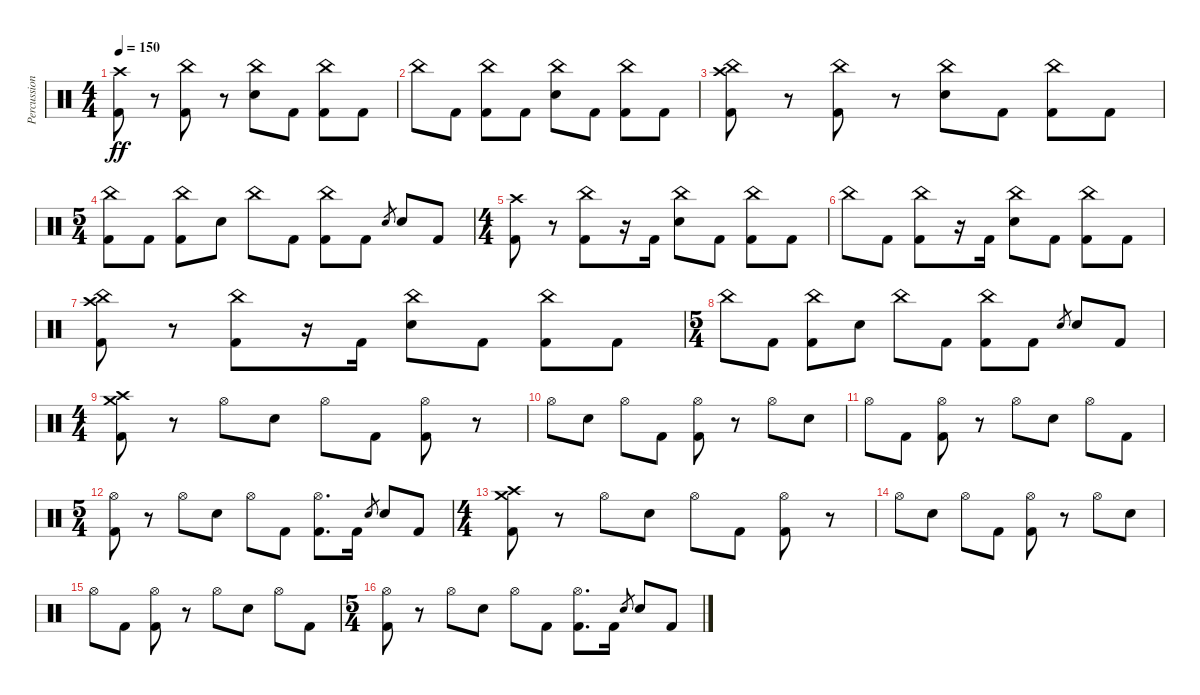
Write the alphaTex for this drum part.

\track ("Percussion" "Percussion") {instrument percussion}
\staff {score}
\articulation defaults
\ts (4 4)
\tempo 150
\clef neutral
\ks c
("Crash high (hit)" "Kick (hit) 2").8{dy ff} r.8 ("China (hit)" "Kick (hit) 2").8 r.8 ("China (hit)" "Electric Snare (hit)").8 "Kick (hit) 2".8 ("China (hit)" "Kick (hit) 2").8 "Kick (hit) 2".8 |
"China (hit)".8 "Kick (hit) 2".8 ("China (hit)" "Kick (hit) 2").8 "Kick (hit) 2".8 ("China (hit)" "Electric Snare (hit)").8 "Kick (hit) 2".8 ("China (hit)" "Kick (hit) 2").8 "Kick (hit) 2".8 |
("China (hit)" "Crash high (hit)" "Kick (hit) 2").8 r.8 ("China (hit)" "Kick (hit) 2").8 r.8 ("China (hit)" "Electric Snare (hit)").8 "Kick (hit) 2".8 ("China (hit)" "Kick (hit) 2").8 "Kick (hit) 2".8 |
\ts (5 4)
("China (hit)" "Kick (hit) 2").8 "Kick (hit) 2".8 ("China (hit)" "Kick (hit) 2").8 "Electric Snare (hit)".8 "China (hit)".8 "Kick (hit) 2".8 ("China (hit)" "Kick (hit) 2").8 "Kick (hit) 2".8 "Electric Snare (hit)".8{gr} "Electric Snare (hit)".8 "Kick (hit) 2".8 |
\ts (4 4)
("Crash high (hit)" "Kick (hit) 2").8 r.8 ("China (hit)" "Kick (hit) 2").8 r.16 "Kick (hit) 2".16 ("China (hit)" "Electric Snare (hit)").8 "Kick (hit) 2".8 ("China (hit)" "Kick (hit) 2").8 "Kick (hit) 2".8 |
"China (hit)".8 "Kick (hit) 2".8 ("China (hit)" "Kick (hit) 2").8 r.16 "Kick (hit) 2".16 ("China (hit)" "Electric Snare (hit)").8 "Kick (hit) 2".8 ("China (hit)" "Kick (hit) 2").8 "Kick (hit) 2".8 |
("China (hit)" "Crash high (hit)" "Kick (hit) 2").8 r.8 ("China (hit)" "Kick (hit) 2").8 r.16 "Kick (hit) 2".16 ("China (hit)" "Electric Snare (hit)").8 "Kick (hit) 2".8 ("China (hit)" "Kick (hit) 2").8 "Kick (hit) 2".8 |
\ts (5 4)
"China (hit)".8 "Kick (hit) 2".8 ("China (hit)" "Kick (hit) 2").8 "Electric Snare (hit)".8 "China (hit)".8 "Kick (hit) 2".8 ("China (hit)" "Kick (hit) 2").8 "Kick (hit) 2".8 "Electric Snare (hit)".8{gr} "Electric Snare (hit)".8 "Kick (hit) 2".8 |
\ts (4 4)
("Crash high (hit)" "Crash medium (hit)" "Kick (hit) 2").8 r.8 "Hi-Hat (open)".8 "Electric Snare (hit)".8 "Hi-Hat (open)".8 "Kick (hit) 2".8 ("Hi-Hat (open)" "Kick (hit) 2").8 r.8 |
"Hi-Hat (open)".8 "Electric Snare (hit)".8 "Hi-Hat (open)".8 "Kick (hit) 2".8 ("Hi-Hat (open)" "Kick (hit) 2").8 r.8 "Hi-Hat (open)".8 "Electric Snare (hit)".8 |
"Hi-Hat (open)".8 "Kick (hit) 2".8 ("Hi-Hat (open)" "Kick (hit) 2").8 r.8 "Hi-Hat (open)".8 "Electric Snare (hit)".8 "Hi-Hat (open)".8 "Kick (hit) 2".8 |
\ts (5 4)
("Hi-Hat (open)" "Kick (hit) 2").8 r.8 "Hi-Hat (open)".8 "Electric Snare (hit)".8 "Hi-Hat (open)".8 "Kick (hit) 2".8 ("Hi-Hat (open)" "Kick (hit) 2").8{d} "Kick (hit) 2".16 "Electric Snare (hit)".8{gr} "Electric Snare (hit)".8 "Kick (hit) 2".8 |
\ts (4 4)
("Crash high (hit)" "Crash medium (hit)" "Kick (hit) 2").8 r.8 "Hi-Hat (open)".8 "Electric Snare (hit)".8 "Hi-Hat (open)".8 "Kick (hit) 2".8 ("Hi-Hat (open)" "Kick (hit) 2").8 r.8 |
"Hi-Hat (open)".8 "Electric Snare (hit)".8 "Hi-Hat (open)".8 "Kick (hit) 2".8 ("Hi-Hat (open)" "Kick (hit) 2").8 r.8 "Hi-Hat (open)".8 "Electric Snare (hit)".8 |
"Hi-Hat (open)".8 "Kick (hit) 2".8 ("Hi-Hat (open)" "Kick (hit) 2").8 r.8 "Hi-Hat (open)".8 "Electric Snare (hit)".8 "Hi-Hat (open)".8 "Kick (hit) 2".8 |
\ts (5 4)
("Hi-Hat (open)" "Kick (hit) 2").8 r.8 "Hi-Hat (open)".8 "Electric Snare (hit)".8 "Hi-Hat (open)".8 "Kick (hit) 2".8 ("Hi-Hat (open)" "Kick (hit) 2").8{d} "Kick (hit) 2".16 "Electric Snare (hit)".8{gr} "Electric Snare (hit)".8 "Kick (hit) 2".8
